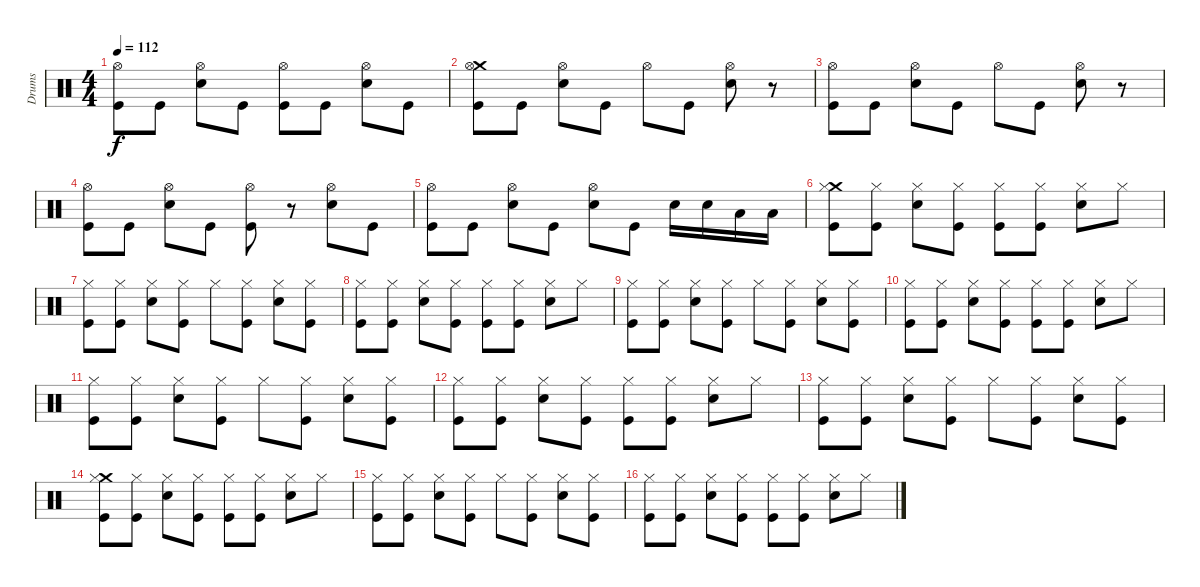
\track ("Drums" "Drums") {instrument percussion}
\staff {score}
\articulation defaults
\ts (4 4)
\tempo 112
\clef neutral
\ks c
("Hi-Hat (open)" "Kick (hit)").8{dy f} "Kick (hit)".8 ("Hi-Hat (open)" "Snare (hit) 2").8 "Kick (hit)".8 ("Hi-Hat (open)" "Kick (hit)").8 "Kick (hit)".8 ("Hi-Hat (open)" "Snare (hit) 2").8 "Kick (hit)".8 |
("Crash medium (hit)" "Hi-Hat (open)" "Kick (hit)").8 "Kick (hit)".8 ("Hi-Hat (open)" "Snare (hit) 2").8 "Kick (hit)".8 "Hi-Hat (open)".8 "Kick (hit)".8 ("Hi-Hat (open)" "Snare (hit) 2").8 r.8 |
("Hi-Hat (open)" "Kick (hit)").8 "Kick (hit)".8 ("Hi-Hat (open)" "Snare (hit) 2").8 "Kick (hit)".8 "Hi-Hat (open)".8 "Kick (hit)".8 ("Hi-Hat (open)" "Snare (hit) 2").8 r.8 |
("Hi-Hat (open)" "Kick (hit)").8 "Kick (hit)".8 ("Hi-Hat (open)" "Snare (hit) 2").8 "Kick (hit)".8 ("Hi-Hat (open)" "Kick (hit)").8 r.8 ("Hi-Hat (open)" "Snare (hit) 2").8 "Kick (hit)".8 |
("Hi-Hat (open)" "Kick (hit)").8 "Kick (hit)".8 ("Hi-Hat (open)" "Snare (hit) 2").8 "Kick (hit)".8 ("Hi-Hat (open)" "Snare (hit) 2").8 "Kick (hit)".8 "Snare (hit) 2".16 "Snare (hit) 2".16 "Low Floor Tom (hit)".16 "Low Floor Tom (hit)".16 |
("Crash medium (hit)" "Hi-Hat (closed)" "Kick (hit)").8 ("Hi-Hat (closed)" "Kick (hit)").8 ("Hi-Hat (closed)" "Snare (hit) 2").8 ("Hi-Hat (closed)" "Kick (hit)").8 ("Hi-Hat (closed)" "Kick (hit)").8 ("Hi-Hat (closed)" "Kick (hit)").8 ("Hi-Hat (closed)" "Snare (hit) 2").8 "Hi-Hat (closed)".8 |
("Hi-Hat (closed)" "Kick (hit)").8 ("Hi-Hat (closed)" "Kick (hit)").8 ("Hi-Hat (closed)" "Snare (hit) 2").8 ("Hi-Hat (closed)" "Kick (hit)").8 "Hi-Hat (closed)".8 ("Hi-Hat (closed)" "Kick (hit)").8 ("Hi-Hat (closed)" "Snare (hit) 2").8 ("Hi-Hat (closed)" "Kick (hit)").8 |
("Hi-Hat (closed)" "Kick (hit)").8 ("Hi-Hat (closed)" "Kick (hit)").8 ("Hi-Hat (closed)" "Snare (hit) 2").8 ("Hi-Hat (closed)" "Kick (hit)").8 ("Hi-Hat (closed)" "Kick (hit)").8 ("Hi-Hat (closed)" "Kick (hit)").8 ("Hi-Hat (closed)" "Snare (hit) 2").8 "Hi-Hat (closed)".8 |
("Hi-Hat (closed)" "Kick (hit)").8 ("Hi-Hat (closed)" "Kick (hit)").8 ("Hi-Hat (closed)" "Snare (hit) 2").8 ("Hi-Hat (closed)" "Kick (hit)").8 "Hi-Hat (closed)".8 ("Hi-Hat (closed)" "Kick (hit)").8 ("Hi-Hat (closed)" "Snare (hit) 2").8 ("Hi-Hat (closed)" "Kick (hit)").8 |
("Hi-Hat (closed)" "Kick (hit)").8 ("Hi-Hat (closed)" "Kick (hit)").8 ("Hi-Hat (closed)" "Snare (hit) 2").8 ("Hi-Hat (closed)" "Kick (hit)").8 ("Hi-Hat (closed)" "Kick (hit)").8 ("Hi-Hat (closed)" "Kick (hit)").8 ("Hi-Hat (closed)" "Snare (hit) 2").8 "Hi-Hat (closed)".8 |
("Hi-Hat (closed)" "Kick (hit)").8 ("Hi-Hat (closed)" "Kick (hit)").8 ("Hi-Hat (closed)" "Snare (hit) 2").8 ("Hi-Hat (closed)" "Kick (hit)").8 "Hi-Hat (closed)".8 ("Hi-Hat (closed)" "Kick (hit)").8 ("Hi-Hat (closed)" "Snare (hit) 2").8 ("Hi-Hat (closed)" "Kick (hit)").8 |
("Hi-Hat (closed)" "Kick (hit)").8 ("Hi-Hat (closed)" "Kick (hit)").8 ("Hi-Hat (closed)" "Snare (hit) 2").8 ("Hi-Hat (closed)" "Kick (hit)").8 ("Hi-Hat (closed)" "Kick (hit)").8 ("Hi-Hat (closed)" "Kick (hit)").8 ("Hi-Hat (closed)" "Snare (hit) 2").8 "Hi-Hat (closed)".8 |
("Hi-Hat (closed)" "Kick (hit)").8 ("Hi-Hat (closed)" "Kick (hit)").8 ("Hi-Hat (closed)" "Snare (hit) 2").8 ("Hi-Hat (closed)" "Kick (hit)").8 "Hi-Hat (closed)".8 ("Hi-Hat (closed)" "Kick (hit)").8 ("Hi-Hat (closed)" "Snare (hit) 2").8 ("Hi-Hat (closed)" "Kick (hit)").8 |
("Crash medium (hit)" "Hi-Hat (closed)" "Kick (hit)").8 ("Hi-Hat (closed)" "Kick (hit)").8 ("Hi-Hat (closed)" "Snare (hit) 2").8 ("Hi-Hat (closed)" "Kick (hit)").8 ("Hi-Hat (closed)" "Kick (hit)").8 ("Hi-Hat (closed)" "Kick (hit)").8 ("Hi-Hat (closed)" "Snare (hit) 2").8 "Hi-Hat (closed)".8 |
("Hi-Hat (closed)" "Kick (hit)").8 ("Hi-Hat (closed)" "Kick (hit)").8 ("Hi-Hat (closed)" "Snare (hit) 2").8 ("Hi-Hat (closed)" "Kick (hit)").8 "Hi-Hat (closed)".8 ("Hi-Hat (closed)" "Kick (hit)").8 ("Hi-Hat (closed)" "Snare (hit) 2").8 ("Hi-Hat (closed)" "Kick (hit)").8 |
("Hi-Hat (closed)" "Kick (hit)").8 ("Hi-Hat (closed)" "Kick (hit)").8 ("Hi-Hat (closed)" "Snare (hit) 2").8 ("Hi-Hat (closed)" "Kick (hit)").8 ("Hi-Hat (closed)" "Kick (hit)").8 ("Hi-Hat (closed)" "Kick (hit)").8 ("Hi-Hat (closed)" "Snare (hit) 2").8 "Hi-Hat (closed)".8
